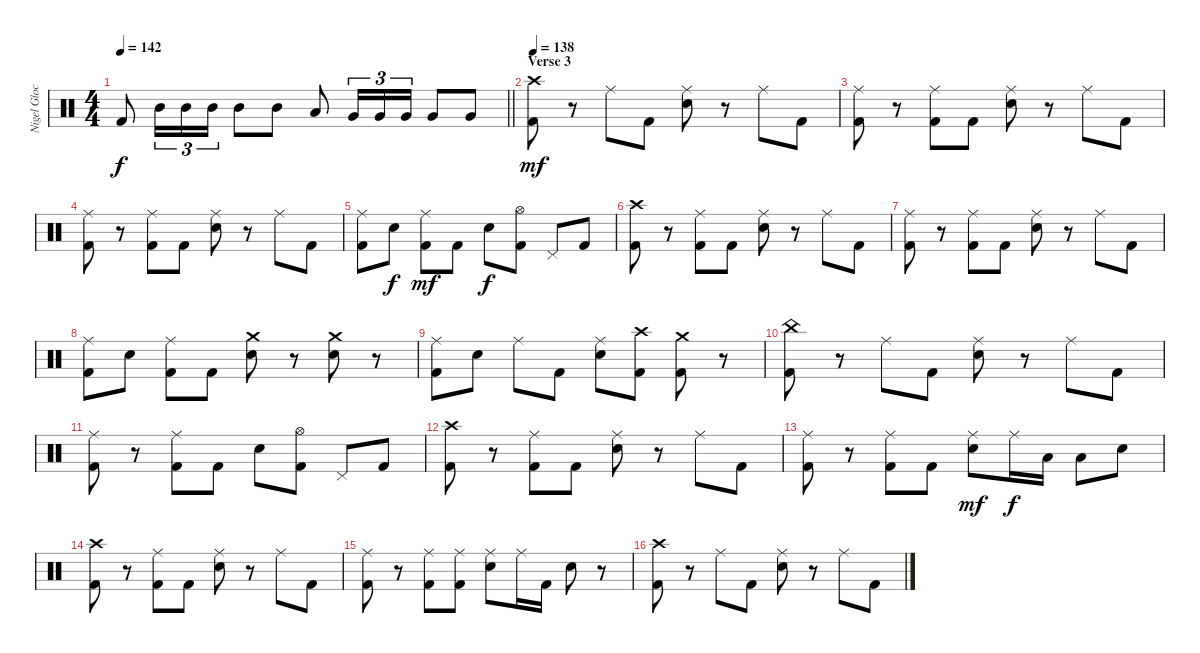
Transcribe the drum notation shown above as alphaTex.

\track ("Nigel Glockler (Drums)" "Nigel Gloc") {instrument percussion}
\staff {score}
\articulation defaults
\ts (4 4)
\tempo 142
\clef neutral
\barLineRight lightlight
\ks c "Kick (hit) 2".8{dy f} "Mid Tom (hit)".16{tu (3 2)} "Mid Tom (hit)".16{tu (3 2)} "Mid Tom (hit)".16{tu (3 2)} "Mid Tom (hit)".8 "Mid Tom (hit)".8 "Low Tom (hit)".8 "Very Low Tom (hit)".16{tu (3 2)} "Very Low Tom (hit)".16{tu (3 2)} "Very Low Tom (hit)".16{tu (3 2)} "Very Low Tom (hit)".8 "Very Low Tom (hit)".8
|
\section ("" "Verse 3")
\tempo 138
("Crash high (hit)" "Kick (hit) 2").8{dy mf} r.8 "Ride (middle)".8 "Kick (hit) 2".8 ("Ride (middle)" "Snare (hit) 2").8 r.8 "Ride (middle)".8 "Kick (hit) 2".8 |
("Ride (middle)" "Kick (hit) 2").8 r.8 ("Ride (middle)" "Kick (hit) 2").8 "Kick (hit) 2".8 ("Ride (middle)" "Snare (hit) 2").8 r.8 "Ride (middle)".8 "Kick (hit) 2".8 |
("Ride (middle)" "Kick (hit) 2").8 r.8 ("Ride (middle)" "Kick (hit) 2").8 "Kick (hit) 2".8 ("Ride (middle)" "Snare (hit) 2").8 r.8 "Ride (middle)".8 "Kick (hit) 2".8 |
("Ride (middle)" "Kick (hit) 2").8 "Snare (hit) 2".8{dy f} ("Ride (middle)" "Kick (hit) 2").8{dy mf} "Kick (hit) 2".8 "Snare (hit) 2".8{dy f} ("Hi-Hat (open)" "Kick (hit) 2").8 "Pedal Hi-Hat (hit)".8 "Kick (hit) 2".8 |
("Crash high (hit)" "Kick (hit) 2").8 r.8 ("Ride (middle)" "Kick (hit) 2").8 "Kick (hit) 2".8 ("Ride (middle)" "Snare (hit) 2").8 r.8 "Ride (middle)".8 "Kick (hit) 2".8 |
("Ride (middle)" "Kick (hit) 2").8 r.8 ("Ride (middle)" "Kick (hit) 2").8 "Kick (hit) 2".8 ("Ride (middle)" "Snare (hit) 2").8 r.8 "Ride (middle)".8 "Kick (hit) 2".8 |
("Ride (middle)" "Kick (hit) 2").8 "Snare (hit) 2".8 ("Ride (middle)" "Kick (hit) 2").8 "Kick (hit) 2".8 ("Crash medium (hit)" "Snare (hit) 2").8 r.8 ("Crash medium (hit)" "Snare (hit) 2").8 r.8 |
("Ride (middle)" "Kick (hit) 2").8 "Snare (hit) 2".8 "Ride (middle)".8 "Kick (hit) 2".8 ("Ride (middle)" "Snare (hit) 2").8 ("Crash high (hit)" "Kick (hit) 2").8 ("Crash medium (hit)" "Kick (hit) 2").8 r.8 |
("China (hit)" "Kick (hit) 2").8 r.8 "Ride (middle)".8 "Kick (hit) 2".8 ("Ride (middle)" "Snare (hit) 2").8 r.8 "Ride (middle)".8 "Kick (hit) 2".8 |
("Ride (middle)" "Kick (hit) 2").8 r.8 ("Ride (middle)" "Kick (hit) 2").8 "Kick (hit) 2".8 "Snare (hit) 2".8 ("Hi-Hat (open)" "Kick (hit) 2").8 "Pedal Hi-Hat (hit)".8 "Kick (hit) 2".8 |
("Crash high (hit)" "Kick (hit) 2").8 r.8 ("Ride (middle)" "Kick (hit) 2").8 "Kick (hit) 2".8 ("Ride (middle)" "Snare (hit) 2").8 r.8 "Ride (middle)".8 "Kick (hit) 2".8 |
("Ride (middle)" "Kick (hit) 2").8 r.8 ("Ride (middle)" "Kick (hit) 2").8 "Kick (hit) 2".8 ("Ride (middle)" "Snare (hit) 2").8{dy mf} "Ride (middle)".16{dy f} "Low Tom (hit)".16 "Low Tom (hit)".8 "Snare (hit) 2".8 |
("Crash high (hit)" "Kick (hit) 2").8 r.8 ("Ride (middle)" "Kick (hit) 2").8 "Kick (hit) 2".8 ("Ride (middle)" "Snare (hit) 2").8 r.8 "Ride (middle)".8 "Kick (hit) 2".8 |
("Ride (middle)" "Kick (hit) 2").8 r.8 ("Ride (middle)" "Kick (hit) 2").8 ("Ride (middle)" "Kick (hit) 2").8 ("Ride (middle)" "Snare (hit) 2").8 "Ride (middle)".16 "Kick (hit) 2".16 "Snare (hit) 2".8 r.8 |
("Crash high (hit)" "Kick (hit) 2").8 r.8 "Ride (middle)".8 "Kick (hit) 2".8 ("Ride (middle)" "Snare (hit) 2").8 r.8 "Ride (middle)".8 "Kick (hit) 2".8
